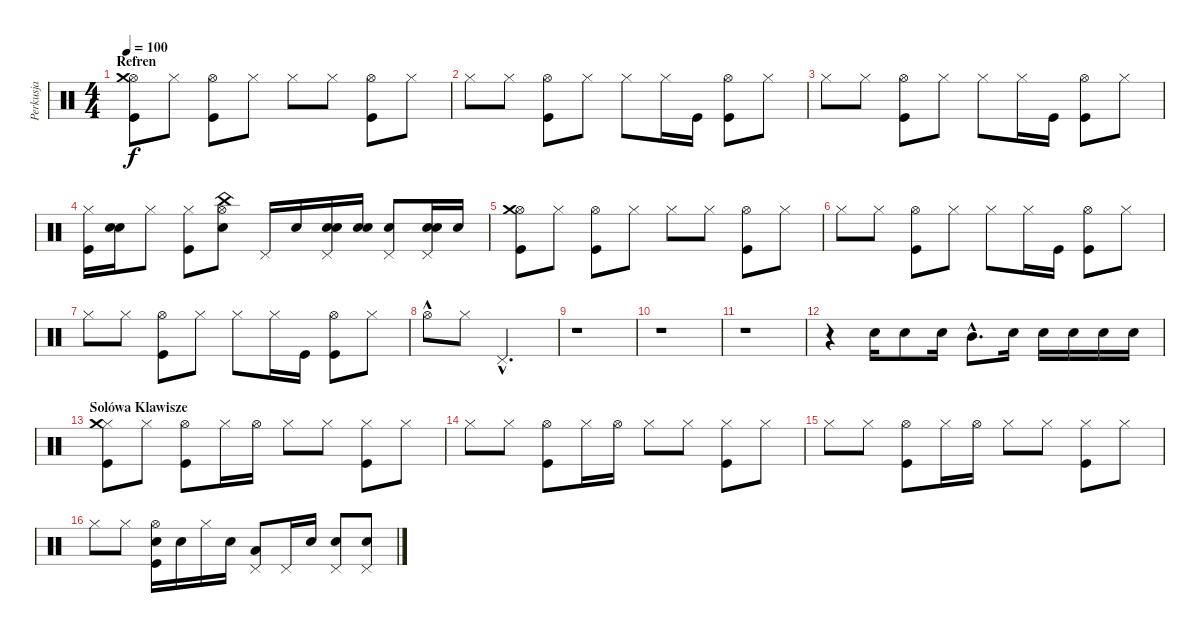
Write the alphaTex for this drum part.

\track ("Perkusja" "Perkusja") {instrument percussion}
\staff {score}
\articulation defaults
\ts (4 4)
\section ("" "Refren")
\tempo 100
\clef neutral
\ks c
("Kick (hit)" "Hi-Hat (open)" "Crash medium (hit)").8{dy f} "Hi-Hat (closed)".8 ("Kick (hit)" "Hi-Hat (open)").8 "Hi-Hat (closed)".8 "Hi-Hat (closed)".8 "Hi-Hat (closed)".8 ("Kick (hit)" "Hi-Hat (open)").8 "Hi-Hat (closed)".8 |
"Hi-Hat (closed)".8 "Hi-Hat (closed)".8 ("Kick (hit)" "Hi-Hat (open)").8 "Hi-Hat (closed)".8 "Hi-Hat (closed)".8 "Hi-Hat (closed)".16 "Kick (hit)".16 ("Kick (hit)" "Hi-Hat (open)").8 "Hi-Hat (closed)".8 |
"Hi-Hat (closed)".8 "Hi-Hat (closed)".8 ("Kick (hit)" "Hi-Hat (open)").8 "Hi-Hat (closed)".8 "Hi-Hat (closed)".8 "Hi-Hat (closed)".16 "Kick (hit)".16 ("Kick (hit)" "Hi-Hat (open)").8 "Hi-Hat (closed)".8 |
("Kick (hit)" "Hi-Hat (closed)").16 ("Snare (hit) 2" "Electric Snare (hit)").16 "Hi-Hat (closed)".8 ("Kick (hit)" "Hi-Hat (closed)").8 ("Electric Snare (hit)" "Hi-Hat (open)" "China (hit)").8 "Pedal Hi-Hat (hit)".16 "Electric Snare (hit)".16 ("Snare (hit) 2" "Electric Snare (hit)" "Pedal Hi-Hat (hit)").16 ("Snare (hit) 2" "Electric Snare (hit)").16 ("Electric Snare (hit)" "Pedal Hi-Hat (hit)").8 ("Snare (hit) 2" "Electric Snare (hit)" "Pedal Hi-Hat (hit)").16 "Electric Snare (hit)".16 |
("Kick (hit)" "Hi-Hat (open)" "Crash medium (hit)").8 "Hi-Hat (closed)".8 ("Kick (hit)" "Hi-Hat (open)").8 "Hi-Hat (closed)".8 "Hi-Hat (closed)".8 "Hi-Hat (closed)".8 ("Kick (hit)" "Hi-Hat (open)").8 "Hi-Hat (closed)".8 |
"Hi-Hat (closed)".8 "Hi-Hat (closed)".8 ("Kick (hit)" "Hi-Hat (open)").8 "Hi-Hat (closed)".8 "Hi-Hat (closed)".8 "Hi-Hat (closed)".16 "Kick (hit)".16 ("Kick (hit)" "Hi-Hat (open)").8 "Hi-Hat (closed)".8 |
"Hi-Hat (closed)".8 "Hi-Hat (closed)".8 ("Kick (hit)" "Hi-Hat (open)").8 "Hi-Hat (closed)".8 "Hi-Hat (closed)".8 "Hi-Hat (closed)".16 "Kick (hit)".16 ("Kick (hit)" "Hi-Hat (open)").8 "Hi-Hat (closed)".8 |
"Hi-Hat (open)"{hac}.8 "Hi-Hat (closed)".8 "Pedal Hi-Hat (hit)"{hac}.2{d} |
r.1 |
r.1 |
r.1 |
r.4 "Electric Snare (hit)".16 "Electric Snare (hit)".8 "Electric Snare (hit)".16 "Mid Tom (hit)"{hac}.8{d} "Electric Snare (hit)".16 "Electric Snare (hit)".16 "Electric Snare (hit)".16 "Electric Snare (hit)".16 "Electric Snare (hit)".16 |
\section ("" "Solówa Klawisze")
("Kick (hit)" "Hi-Hat (closed)" "Crash medium (hit)").8 "Hi-Hat (closed)".8 ("Kick (hit)" "Hi-Hat (open)").8 "Hi-Hat (closed)".16 "Hi-Hat (open)".16 "Hi-Hat (closed)".8 "Hi-Hat (closed)".8 ("Kick (hit)" "Hi-Hat (closed)").8 "Hi-Hat (closed)".8 |
"Hi-Hat (closed)".8 "Hi-Hat (closed)".8 ("Kick (hit)" "Hi-Hat (open)").8 "Hi-Hat (closed)".16 "Hi-Hat (open)".16 "Hi-Hat (closed)".8 "Hi-Hat (closed)".8 ("Kick (hit)" "Hi-Hat (closed)").8 "Hi-Hat (closed)".8 |
"Hi-Hat (closed)".8 "Hi-Hat (closed)".8 ("Kick (hit)" "Hi-Hat (open)").8 "Hi-Hat (closed)".16 "Hi-Hat (open)".16 "Hi-Hat (closed)".8 "Hi-Hat (closed)".8 ("Kick (hit)" "Hi-Hat (closed)").8 "Hi-Hat (closed)".8 |
"Hi-Hat (closed)".8 "Hi-Hat (closed)".8 ("Kick (hit)" "Electric Snare (hit)" "Hi-Hat (open)").16 "Electric Snare (hit)".16 "Hi-Hat (closed)".16 "Electric Snare (hit)".16 ("Pedal Hi-Hat (hit)" "Low Tom (hit)").8 "Pedal Hi-Hat (hit)".16 "Electric Snare (hit)".16 ("Electric Snare (hit)" "Pedal Hi-Hat (hit)").8 ("Electric Snare (hit)" "Pedal Hi-Hat (hit)").8
